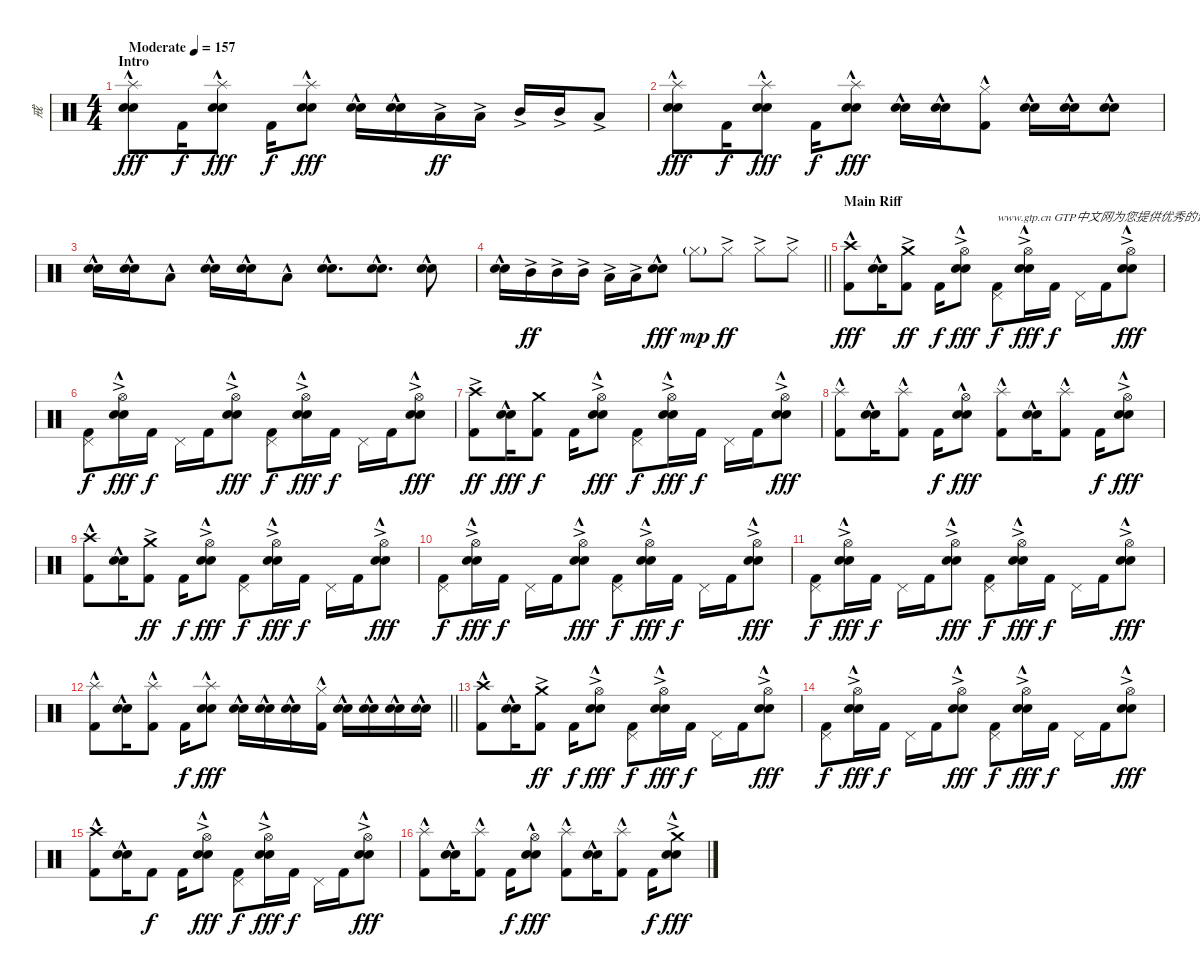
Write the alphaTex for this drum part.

\track ("戒" "戒") {instrument percussion}
\staff {score}
\articulation defaults
\ts (4 4)
\section ("" "Intro")
\tempo (157 "Moderate")
\clef neutral
\ks c
("Splash (hit)"{hac} "Electric Snare (hit)"{hac} "Snare (hit) 2").8{dy fff} "Kick (hit) 2".16{dy f} ("Splash (hit)"{hac} "Electric Snare (hit)"{hac} "Snare (hit) 2").8{dy fff} "Kick (hit) 2".16{dy f} ("Splash (hit)"{hac} "Electric Snare (hit)"{hac} "Snare (hit) 2").8{dy fff} ("Electric Snare (hit)"{hac} "Snare (hit) 2").16 ("Electric Snare (hit)"{hac} "Snare (hit) 2").16 "Low Tom (hit)"{ac}.16{dy ff} "Low Tom (hit)"{ac}.16 "Mid Tom (hit)"{ac}.16 "Mid Tom (hit)"{ac}.16 "Low Tom (hit)"{ac}.8 |
("Splash (hit)"{hac} "Electric Snare (hit)"{hac} "Snare (hit) 2").8{dy fff} "Kick (hit) 2".16{dy f} ("Splash (hit)"{hac} "Electric Snare (hit)"{hac} "Snare (hit) 2").8{dy fff} "Kick (hit) 2".16{dy f} ("Splash (hit)"{hac} "Electric Snare (hit)"{hac} "Snare (hit) 2").8{dy fff} ("Electric Snare (hit)"{hac} "Snare (hit) 2").16 ("Electric Snare (hit)"{hac} "Snare (hit) 2").16 ("Hi-Hat (closed)"{hac} "Kick (hit) 2").8 ("Electric Snare (hit)"{hac} "Snare (hit) 2").16 ("Electric Snare (hit)"{hac} "Snare (hit) 2").16 ("Electric Snare (hit)"{hac} "Snare (hit) 2").8 |
("Electric Snare (hit)"{hac} "Snare (hit) 2").16 ("Electric Snare (hit)"{hac} "Snare (hit) 2").16 "Low Tom (hit)"{hac}.8 ("Electric Snare (hit)"{hac} "Snare (hit) 2").16 ("Electric Snare (hit)"{hac} "Snare (hit) 2").16 "Low Tom (hit)"{hac}.8 ("Electric Snare (hit)"{hac} "Snare (hit) 2").8{d} ("Electric Snare (hit)"{hac} "Snare (hit) 2").8{d} ("Electric Snare (hit)"{hac} "Snare (hit) 2").8 |
\barLineRight lightlight
("Electric Snare (hit)"{hac} "Snare (hit) 2").16 "Mid Tom (hit)"{ac}.16{dy ff} "Mid Tom (hit)"{ac}.16 "Mid Tom (hit)"{ac}.16 "Low Tom (hit)"{ac}.16 "Low Tom (hit)"{ac}.16 ("Electric Snare (hit)"{hac} "Snare (hit) 2").8{dy fff} "Hi-Hat (closed)"{g}.8{dy mp} "Hi-Hat (closed)"{ac}.8{dy ff} "Hi-Hat (closed)"{ac}.8 "Hi-Hat (closed)"{ac}.8 |
\section ("" "Main Riff")
("Crash high (hit)"{hac} "Kick (hit) 2").8{dy fff} ("Electric Snare (hit)"{hac} "Snare (hit) 2").16 ("Crash medium (hit)"{ac} "Kick (hit) 2").8{dy ff} "Kick (hit) 2".16{dy f} ("Hi-Hat (open)"{ac} "Electric Snare (hit)"{hac} "Snare (hit) 2").8{dy fff} ("Pedal Hi-Hat (hit)" "Kick (hit) 2").8{txt "www.gtp.cn GTP中文网为您提供优秀的谱子" dy f} ("Hi-Hat (open)"{ac} "Electric Snare (hit)"{hac} "Snare (hit) 2").16{dy fff} "Kick (hit) 2".16{dy f} "Pedal Hi-Hat (hit)".16 "Kick (hit) 2".16 ("Hi-Hat (open)"{ac} "Electric Snare (hit)"{hac} "Snare (hit) 2").8{dy fff} |
("Pedal Hi-Hat (hit)" "Kick (hit) 2").8{dy f} ("Hi-Hat (open)"{ac} "Electric Snare (hit)"{hac} "Snare (hit) 2").16{dy fff} "Kick (hit) 2".16{dy f} "Pedal Hi-Hat (hit)".16 "Kick (hit) 2".16 ("Hi-Hat (open)"{ac} "Electric Snare (hit)"{hac} "Snare (hit) 2").8{dy fff} ("Pedal Hi-Hat (hit)" "Kick (hit) 2").8{dy f} ("Hi-Hat (open)"{ac} "Electric Snare (hit)"{hac} "Snare (hit) 2").16{dy fff} "Kick (hit) 2".16{dy f} "Pedal Hi-Hat (hit)".16 "Kick (hit) 2".16 ("Hi-Hat (open)"{ac} "Electric Snare (hit)"{hac} "Snare (hit) 2").8{dy fff} |
("Crash high (hit)"{ac} "Kick (hit) 2").8{dy ff} ("Electric Snare (hit)"{hac} "Snare (hit) 2").16{dy fff} ("Crash medium (hit)" "Kick (hit) 2").8{dy f} "Kick (hit) 2".16 ("Hi-Hat (open)"{ac} "Electric Snare (hit)"{hac} "Snare (hit) 2").8{dy fff} ("Pedal Hi-Hat (hit)" "Kick (hit) 2").8{dy f} ("Hi-Hat (open)"{ac} "Electric Snare (hit)"{hac} "Snare (hit) 2").16{dy fff} "Kick (hit) 2".16{dy f} "Pedal Hi-Hat (hit)".16 "Kick (hit) 2".16 ("Hi-Hat (open)"{ac} "Electric Snare (hit)"{hac} "Snare (hit) 2").8{dy fff} |
("Splash (hit)"{hac} "Kick (hit) 2").8 ("Electric Snare (hit)"{hac} "Snare (hit) 2").16 ("Splash (hit)"{hac} "Kick (hit) 2").8 "Kick (hit) 2".16{dy f} ("Hi-Hat (open)" "Electric Snare (hit)"{hac} "Snare (hit) 2").8{dy fff} ("Splash (hit)"{hac} "Kick (hit) 2").8 ("Electric Snare (hit)"{hac} "Snare (hit) 2").16 ("Splash (hit)"{hac} "Kick (hit) 2").8 "Kick (hit) 2".16{dy f} ("Hi-Hat (open)"{ac} "Electric Snare (hit)"{hac} "Snare (hit) 2").8{dy fff} |
("Crash high (hit)"{hac} "Kick (hit) 2").8 ("Electric Snare (hit)"{hac} "Snare (hit) 2").16 ("Crash medium (hit)"{ac} "Kick (hit) 2").8{dy ff} "Kick (hit) 2".16{dy f} ("Hi-Hat (open)"{ac} "Electric Snare (hit)"{hac} "Snare (hit) 2").8{dy fff} ("Pedal Hi-Hat (hit)" "Kick (hit) 2").8{dy f} ("Hi-Hat (open)"{ac} "Electric Snare (hit)"{hac} "Snare (hit) 2").16{dy fff} "Kick (hit) 2".16{dy f} "Pedal Hi-Hat (hit)".16 "Kick (hit) 2".16 ("Hi-Hat (open)"{ac} "Electric Snare (hit)"{hac} "Snare (hit) 2").8{dy fff} |
("Pedal Hi-Hat (hit)" "Kick (hit) 2").8{dy f} ("Hi-Hat (open)"{ac} "Electric Snare (hit)"{hac} "Snare (hit) 2").16{dy fff} "Kick (hit) 2".16{dy f} "Pedal Hi-Hat (hit)".16 "Kick (hit) 2".16 ("Hi-Hat (open)"{ac} "Electric Snare (hit)"{hac} "Snare (hit) 2").8{dy fff} ("Pedal Hi-Hat (hit)" "Kick (hit) 2").8{dy f} ("Hi-Hat (open)"{ac} "Electric Snare (hit)"{hac} "Snare (hit) 2").16{dy fff} "Kick (hit) 2".16{dy f} "Pedal Hi-Hat (hit)".16 "Kick (hit) 2".16 ("Hi-Hat (open)"{ac} "Electric Snare (hit)"{hac} "Snare (hit) 2").8{dy fff} |
("Pedal Hi-Hat (hit)" "Kick (hit) 2").8{dy f} ("Hi-Hat (open)"{ac} "Electric Snare (hit)"{hac} "Snare (hit) 2").16{dy fff} "Kick (hit) 2".16{dy f} "Pedal Hi-Hat (hit)".16 "Kick (hit) 2".16 ("Hi-Hat (open)"{ac} "Electric Snare (hit)"{hac} "Snare (hit) 2").8{dy fff} ("Pedal Hi-Hat (hit)" "Kick (hit) 2").8{dy f} ("Hi-Hat (open)"{ac} "Electric Snare (hit)"{hac} "Snare (hit) 2").16{dy fff} "Kick (hit) 2".16{dy f} "Pedal Hi-Hat (hit)".16 "Kick (hit) 2".16 ("Hi-Hat (open)"{ac} "Electric Snare (hit)"{hac} "Snare (hit) 2").8{dy fff} |
\barLineRight lightlight
("Splash (hit)"{hac} "Kick (hit) 2").8 ("Electric Snare (hit)"{hac} "Snare (hit) 2").16 ("Splash (hit)"{hac} "Kick (hit) 2").8 "Kick (hit) 2".16{dy f} ("Splash (hit)"{hac} "Electric Snare (hit)"{hac} "Snare (hit) 2").8{dy fff} ("Electric Snare (hit)"{hac} "Snare (hit) 2").16 ("Electric Snare (hit)"{hac} "Snare (hit) 2").16 ("Electric Snare (hit)"{hac} "Snare (hit) 2").16 ("Hi-Hat (closed)"{hac} "Kick (hit) 2").16 ("Electric Snare (hit)"{hac} "Snare (hit) 2").16 ("Electric Snare (hit)"{hac} "Snare (hit) 2").16 ("Electric Snare (hit)"{hac} "Snare (hit) 2").16 ("Electric Snare (hit)"{hac} "Snare (hit) 2").16 |
\section ("" "")
("Crash high (hit)"{hac} "Kick (hit) 2").8 ("Electric Snare (hit)"{hac} "Snare (hit) 2").16 ("Crash medium (hit)"{ac} "Kick (hit) 2").8{dy ff} "Kick (hit) 2".16{dy f} ("Hi-Hat (open)"{ac} "Electric Snare (hit)"{hac} "Snare (hit) 2").8{dy fff} ("Pedal Hi-Hat (hit)" "Kick (hit) 2").8{dy f} ("Hi-Hat (open)"{ac} "Electric Snare (hit)"{hac} "Snare (hit) 2").16{dy fff} "Kick (hit) 2".16{dy f} "Pedal Hi-Hat (hit)".16 "Kick (hit) 2".16 ("Hi-Hat (open)"{ac} "Electric Snare (hit)"{hac} "Snare (hit) 2").8{dy fff} |
("Pedal Hi-Hat (hit)" "Kick (hit) 2").8{dy f} ("Hi-Hat (open)"{ac} "Electric Snare (hit)"{hac} "Snare (hit) 2").16{dy fff} "Kick (hit) 2".16{dy f} "Pedal Hi-Hat (hit)".16 "Kick (hit) 2".16 ("Hi-Hat (open)"{ac} "Electric Snare (hit)"{hac} "Snare (hit) 2").8{dy fff} ("Pedal Hi-Hat (hit)" "Kick (hit) 2").8{dy f} ("Hi-Hat (open)"{ac} "Electric Snare (hit)"{hac} "Snare (hit) 2").16{dy fff} "Kick (hit) 2".16{dy f} "Pedal Hi-Hat (hit)".16 "Kick (hit) 2".16 ("Hi-Hat (open)"{ac} "Electric Snare (hit)"{hac} "Snare (hit) 2").8{dy fff} |
("Crash high (hit)"{hac} "Kick (hit) 2").8 ("Electric Snare (hit)"{hac} "Snare (hit) 2").16 "Kick (hit) 2".8{dy f} "Kick (hit) 2".16 ("Hi-Hat (open)"{ac} "Electric Snare (hit)"{hac} "Snare (hit) 2").8{dy fff} ("Pedal Hi-Hat (hit)" "Kick (hit) 2").8{dy f} ("Hi-Hat (open)"{ac} "Electric Snare (hit)"{hac} "Snare (hit) 2").16{dy fff} "Kick (hit) 2".16{dy f} "Pedal Hi-Hat (hit)".16 "Kick (hit) 2".16 ("Hi-Hat (open)"{ac} "Electric Snare (hit)"{hac} "Snare (hit) 2").8{dy fff} |
("Splash (hit)"{hac} "Kick (hit) 2").8 ("Electric Snare (hit)"{hac} "Snare (hit) 2").16 ("Splash (hit)"{hac} "Kick (hit) 2").8 "Kick (hit) 2".16{dy f} ("Hi-Hat (open)" "Electric Snare (hit)"{hac} "Snare (hit) 2").8{dy fff} ("Splash (hit)"{hac} "Kick (hit) 2").8 ("Electric Snare (hit)"{hac} "Snare (hit) 2").16 ("Splash (hit)"{hac} "Kick (hit) 2").8 "Kick (hit) 2".16{dy f} ("Crash medium (hit)"{ac} "Electric Snare (hit)"{hac} "Snare (hit) 2").8{dy fff}
